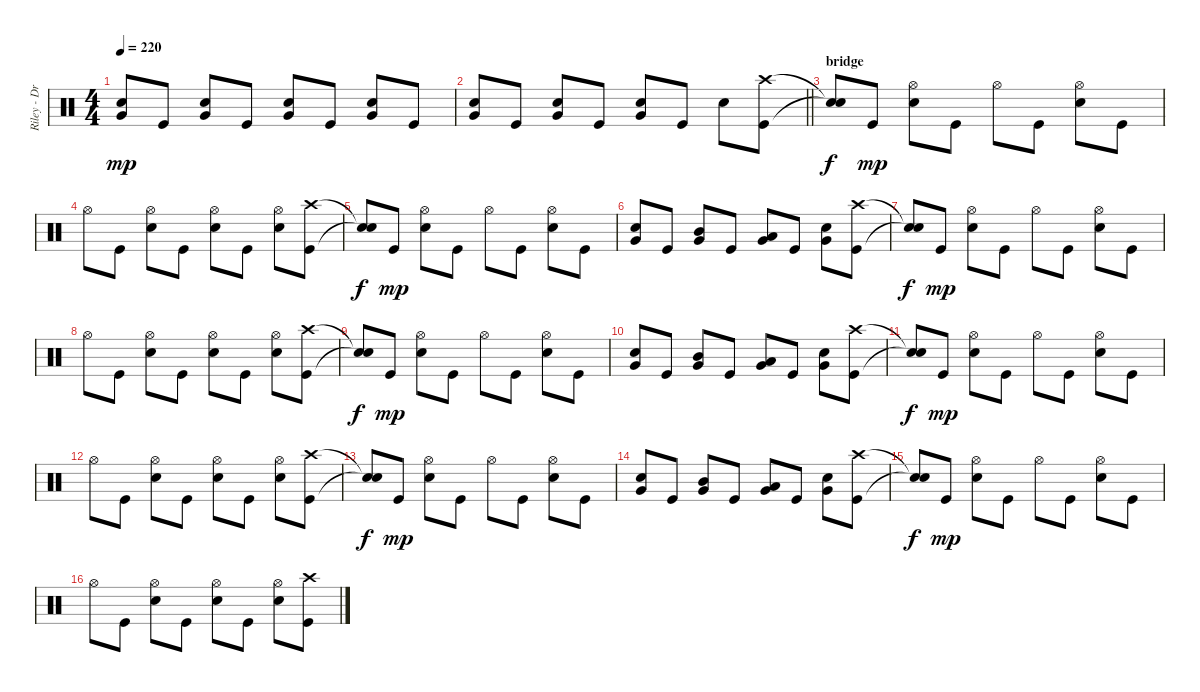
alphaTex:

\track ("Riley - Drums" "Riley - Dr") {instrument percussion}
\staff {score}
\articulation defaults
\ts (4 4)
\tempo 220
\clef neutral
\ks c
("Electric Snare (hit)" "Very Low Tom (hit)").8{dy mp} "Kick (hit)".8 ("Electric Snare (hit)" "Very Low Tom (hit)").8 "Kick (hit)".8 ("Electric Snare (hit)" "Very Low Tom (hit)").8 "Kick (hit)".8 ("Electric Snare (hit)" "Very Low Tom (hit)").8 "Kick (hit)".8 |
\barLineRight lightlight
("Electric Snare (hit)" "Very Low Tom (hit)").8 "Kick (hit)".8 ("Electric Snare (hit)" "Very Low Tom (hit)").8 "Kick (hit)".8 ("Electric Snare (hit)" "Very Low Tom (hit)").8 "Kick (hit)".8 "Electric Snare (hit)".8 ("Kick (hit)" "Crash high (hit)").8 |
\section ("" "bridge")
("Snare (hit)"{t} "Snare (hit)"{t}).8{dy f} "Kick (hit)".8{dy mp} ("Electric Snare (hit)" "Hi-Hat (open)").8 "Kick (hit)".8 "Hi-Hat (open)".8 "Kick (hit)".8 ("Electric Snare (hit)" "Hi-Hat (open)").8 "Kick (hit)".8 |
"Hi-Hat (open)".8 "Kick (hit)".8 ("Electric Snare (hit)" "Hi-Hat (open)").8 "Kick (hit)".8 ("Electric Snare (hit)" "Hi-Hat (open)").8 "Kick (hit)".8 ("Electric Snare (hit)" "Hi-Hat (open)").8 ("Kick (hit)" "Crash high (hit)").8 |
("Snare (hit)"{t} "Snare (hit)"{t}).8{dy f} "Kick (hit)".8{dy mp} ("Electric Snare (hit)" "Hi-Hat (open)").8 "Kick (hit)".8 "Hi-Hat (open)".8 "Kick (hit)".8 ("Electric Snare (hit)" "Hi-Hat (open)").8 "Kick (hit)".8 |
("Electric Snare (hit)" "Very Low Tom (hit)").8 "Kick (hit)".8 ("Mid Tom (hit)" "Very Low Tom (hit)").8 "Kick (hit)".8 ("Low Floor Tom (hit)" "Very Low Tom (hit)").8 "Kick (hit)".8 ("Electric Snare (hit)" "Very Low Tom (hit)").8 ("Kick (hit)" "Crash high (hit)").8 |
("Snare (hit)"{t} "Snare (hit)"{t}).8{dy f} "Kick (hit)".8{dy mp} ("Electric Snare (hit)" "Hi-Hat (open)").8 "Kick (hit)".8 "Hi-Hat (open)".8 "Kick (hit)".8 ("Electric Snare (hit)" "Hi-Hat (open)").8 "Kick (hit)".8 |
"Hi-Hat (open)".8 "Kick (hit)".8 ("Electric Snare (hit)" "Hi-Hat (open)").8 "Kick (hit)".8 ("Electric Snare (hit)" "Hi-Hat (open)").8 "Kick (hit)".8 ("Electric Snare (hit)" "Hi-Hat (open)").8 ("Kick (hit)" "Crash high (hit)").8 |
("Snare (hit)"{t} "Snare (hit)"{t}).8{dy f} "Kick (hit)".8{dy mp} ("Electric Snare (hit)" "Hi-Hat (open)").8 "Kick (hit)".8 "Hi-Hat (open)".8 "Kick (hit)".8 ("Electric Snare (hit)" "Hi-Hat (open)").8 "Kick (hit)".8 |
("Electric Snare (hit)" "Very Low Tom (hit)").8 "Kick (hit)".8 ("Mid Tom (hit)" "Very Low Tom (hit)").8 "Kick (hit)".8 ("Low Floor Tom (hit)" "Very Low Tom (hit)").8 "Kick (hit)".8 ("Electric Snare (hit)" "Very Low Tom (hit)").8 ("Kick (hit)" "Crash high (hit)").8 |
("Snare (hit)"{t} "Snare (hit)"{t}).8{dy f} "Kick (hit)".8{dy mp} ("Electric Snare (hit)" "Hi-Hat (open)").8 "Kick (hit)".8 "Hi-Hat (open)".8 "Kick (hit)".8 ("Electric Snare (hit)" "Hi-Hat (open)").8 "Kick (hit)".8 |
"Hi-Hat (open)".8 "Kick (hit)".8 ("Electric Snare (hit)" "Hi-Hat (open)").8 "Kick (hit)".8 ("Electric Snare (hit)" "Hi-Hat (open)").8 "Kick (hit)".8 ("Electric Snare (hit)" "Hi-Hat (open)").8 ("Kick (hit)" "Crash high (hit)").8 |
("Snare (hit)"{t} "Snare (hit)"{t}).8{dy f} "Kick (hit)".8{dy mp} ("Electric Snare (hit)" "Hi-Hat (open)").8 "Kick (hit)".8 "Hi-Hat (open)".8 "Kick (hit)".8 ("Electric Snare (hit)" "Hi-Hat (open)").8 "Kick (hit)".8 |
("Electric Snare (hit)" "Very Low Tom (hit)").8 "Kick (hit)".8 ("Mid Tom (hit)" "Very Low Tom (hit)").8 "Kick (hit)".8 ("Low Floor Tom (hit)" "Very Low Tom (hit)").8 "Kick (hit)".8 ("Electric Snare (hit)" "Very Low Tom (hit)").8 ("Kick (hit)" "Crash high (hit)").8 |
("Snare (hit)"{t} "Snare (hit)"{t}).8{dy f} "Kick (hit)".8{dy mp} ("Electric Snare (hit)" "Hi-Hat (open)").8 "Kick (hit)".8 "Hi-Hat (open)".8 "Kick (hit)".8 ("Electric Snare (hit)" "Hi-Hat (open)").8 "Kick (hit)".8 |
"Hi-Hat (open)".8 "Kick (hit)".8 ("Electric Snare (hit)" "Hi-Hat (open)").8 "Kick (hit)".8 ("Electric Snare (hit)" "Hi-Hat (open)").8 "Kick (hit)".8 ("Electric Snare (hit)" "Hi-Hat (open)").8 ("Kick (hit)" "Crash high (hit)").8
